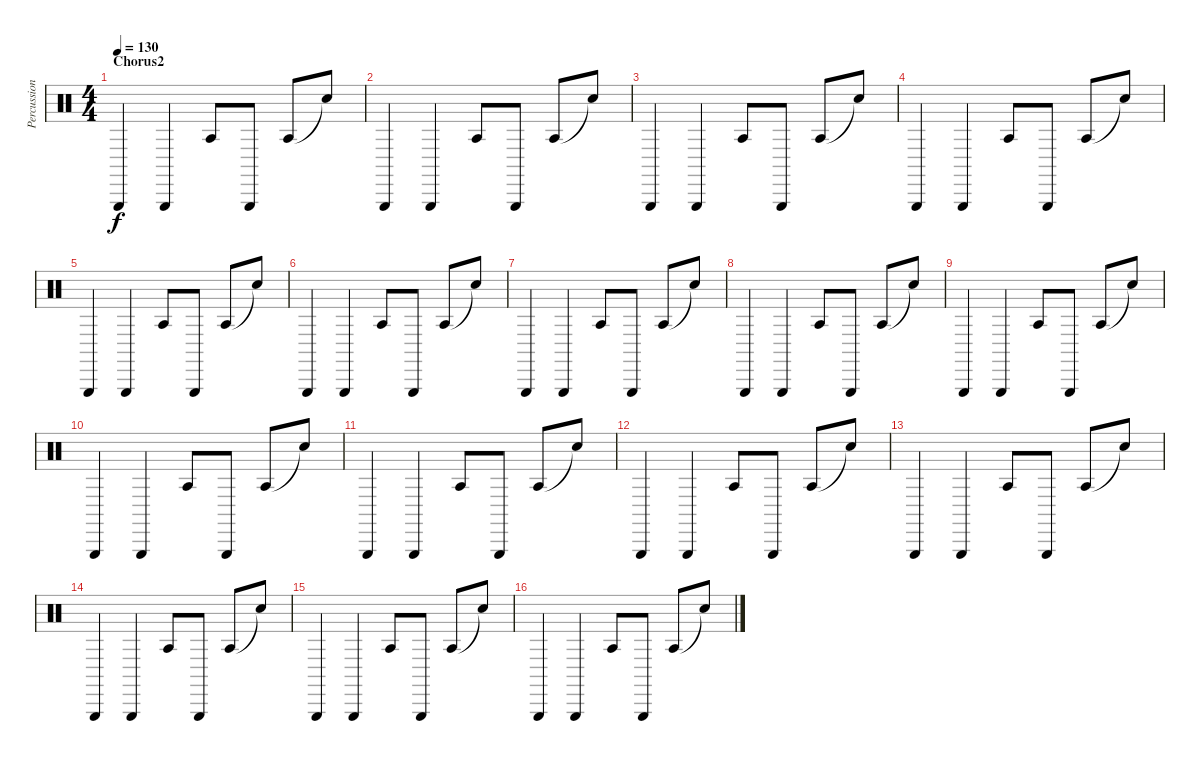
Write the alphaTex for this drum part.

\track ("Percussion" "Percussion") {instrument percussion}
\staff {score}
\articulation defaults
\ts (4 4)
\section ("" "Chorus2")
\tempo 130
\clef neutral
\ks c "Triangle (hit)".4{dy f} "Triangle (hit)".4 "Agogo tow (hit)".8 "Triangle (hit)".8 "Agogo tow (hit)".8 "Snare (hit)"{t}.8
|
"Triangle (hit)".4 "Triangle (hit)".4 "Agogo tow (hit)".8 "Triangle (hit)".8 "Agogo tow (hit)".8 "Snare (hit)"{t}.8 |
"Triangle (hit)".4 "Triangle (hit)".4 "Agogo tow (hit)".8 "Triangle (hit)".8 "Agogo tow (hit)".8 "Snare (hit)"{t}.8 |
"Triangle (hit)".4 "Triangle (hit)".4 "Agogo tow (hit)".8 "Triangle (hit)".8 "Agogo tow (hit)".8 "Snare (hit)"{t}.8 |
"Triangle (hit)".4 "Triangle (hit)".4 "Agogo tow (hit)".8 "Triangle (hit)".8 "Agogo tow (hit)".8 "Snare (hit)"{t}.8 |
"Triangle (hit)".4 "Triangle (hit)".4 "Agogo tow (hit)".8 "Triangle (hit)".8 "Agogo tow (hit)".8 "Snare (hit)"{t}.8 |
"Triangle (hit)".4 "Triangle (hit)".4 "Agogo tow (hit)".8 "Triangle (hit)".8 "Agogo tow (hit)".8 "Snare (hit)"{t}.8 |
"Triangle (hit)".4 "Triangle (hit)".4 "Agogo tow (hit)".8 "Triangle (hit)".8 "Agogo tow (hit)".8 "Snare (hit)"{t}.8 |
"Triangle (hit)".4 "Triangle (hit)".4 "Agogo tow (hit)".8 "Triangle (hit)".8 "Agogo tow (hit)".8 "Snare (hit)"{t}.8 |
"Triangle (hit)".4 "Triangle (hit)".4 "Agogo tow (hit)".8 "Triangle (hit)".8 "Agogo tow (hit)".8 "Snare (hit)"{t}.8 |
"Triangle (hit)".4 "Triangle (hit)".4 "Agogo tow (hit)".8 "Triangle (hit)".8 "Agogo tow (hit)".8 "Snare (hit)"{t}.8 |
"Triangle (hit)".4 "Triangle (hit)".4 "Agogo tow (hit)".8 "Triangle (hit)".8 "Agogo tow (hit)".8 "Snare (hit)"{t}.8 |
"Triangle (hit)".4 "Triangle (hit)".4 "Agogo tow (hit)".8 "Triangle (hit)".8 "Agogo tow (hit)".8 "Snare (hit)"{t}.8 |
"Triangle (hit)".4 "Triangle (hit)".4 "Agogo tow (hit)".8 "Triangle (hit)".8 "Agogo tow (hit)".8 "Snare (hit)"{t}.8 |
"Triangle (hit)".4 "Triangle (hit)".4 "Agogo tow (hit)".8 "Triangle (hit)".8 "Agogo tow (hit)".8 "Snare (hit)"{t}.8 |
"Triangle (hit)".4 "Triangle (hit)".4 "Agogo tow (hit)".8 "Triangle (hit)".8 "Agogo tow (hit)".8 "Snare (hit)"{t}.8
